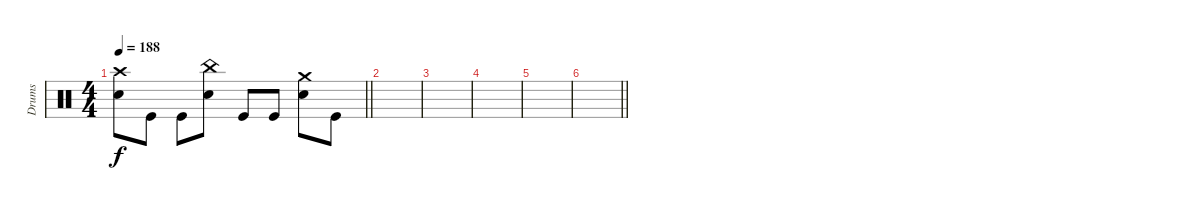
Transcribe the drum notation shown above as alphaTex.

\track ("Drums" "Drums") {instrument percussion}
\staff
\articulation defaults
\ts (4 4)
\tempo 188
\clef neutral
\barLineRight lightlight
\ks c
("Crash high (hit)" "Electric Snare (hit)").8{dy f} "Kick (hit)".8 "Kick (hit)".8 ("China (hit)" "Electric Snare (hit)").8 "Kick (hit)".8 "Kick (hit)".8 ("Crash medium (hit)" "Electric Snare (hit)").8 "Kick (hit)".8 |
|
|
|
|
\barLineRight lightlight
